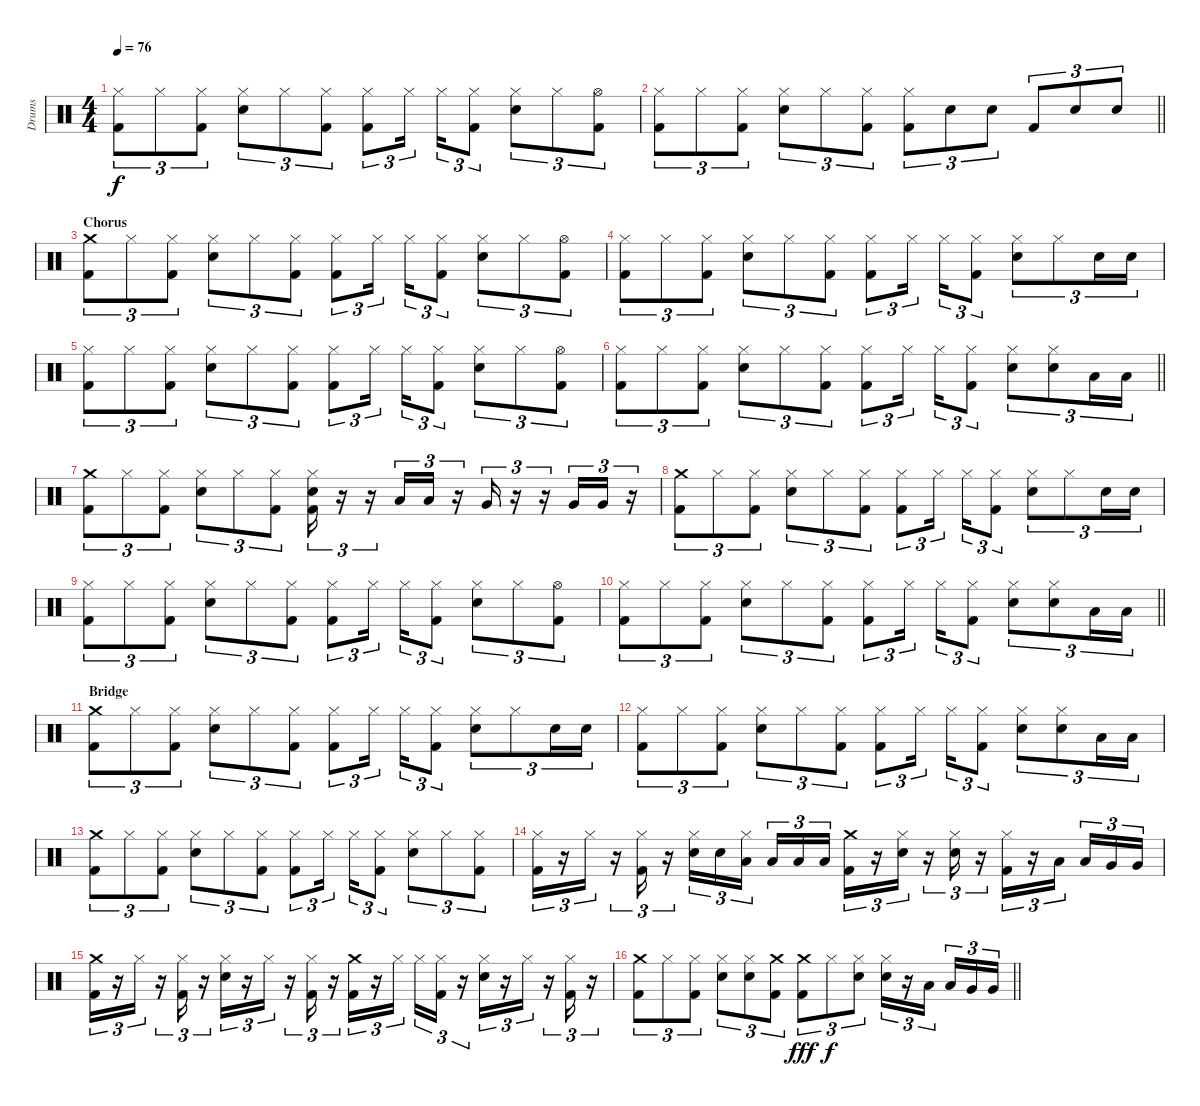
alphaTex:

\track ("Drums" "Drums") {instrument percussion}
\staff {score}
\articulation defaults
\ts (4 4)
\tempo 76
\clef neutral
\ks c
("Hi-Hat (closed)" "Kick (hit) 2").8{tu (3 2) dy f} "Hi-Hat (closed)".8{tu (3 2)} ("Hi-Hat (closed)" "Kick (hit) 2").8{tu (3 2)} ("Hi-Hat (closed)" "Snare (hit) 2").8{tu (3 2)} "Hi-Hat (closed)".8{tu (3 2)} ("Hi-Hat (closed)" "Kick (hit) 2").8{tu (3 2)} ("Hi-Hat (closed)" "Kick (hit) 2").8{tu (3 2)} "Hi-Hat (closed)".16{tu (3 2) beam splitsecondary} "Hi-Hat (closed)".16{tu (3 2)} ("Hi-Hat (closed)" "Kick (hit) 2").8{tu (3 2)} ("Hi-Hat (closed)" "Snare (hit) 2").8{tu (3 2)} "Hi-Hat (closed)".8{tu (3 2)} ("Hi-Hat (open)" "Kick (hit) 2").8{tu (3 2)} |
\barLineRight lightlight
("Hi-Hat (closed)" "Kick (hit) 2").8{tu (3 2)} "Hi-Hat (closed)".8{tu (3 2)} ("Hi-Hat (closed)" "Kick (hit) 2").8{tu (3 2)} ("Hi-Hat (closed)" "Snare (hit) 2").8{tu (3 2)} "Hi-Hat (closed)".8{tu (3 2)} ("Hi-Hat (closed)" "Kick (hit) 2").8{tu (3 2)} ("Hi-Hat (closed)" "Kick (hit) 2").8{tu (3 2)} "Snare (hit) 2".8{tu (3 2)} "Snare (hit) 2".8{tu (3 2)} "Kick (hit) 2".8{tu (3 2)} "Snare (hit) 2".8{tu (3 2)} "Snare (hit) 2".8{tu (3 2)} |
\section ("" "Chorus")
("Crash medium (hit)" "Kick (hit) 2").8{tu (3 2)} "Hi-Hat (closed)".8{tu (3 2)} ("Hi-Hat (closed)" "Kick (hit) 2").8{tu (3 2)} ("Hi-Hat (closed)" "Snare (hit) 2").8{tu (3 2)} "Hi-Hat (closed)".8{tu (3 2)} ("Hi-Hat (closed)" "Kick (hit) 2").8{tu (3 2)} ("Hi-Hat (closed)" "Kick (hit) 2").8{tu (3 2)} "Hi-Hat (closed)".16{tu (3 2) beam splitsecondary} "Hi-Hat (closed)".16{tu (3 2)} ("Hi-Hat (closed)" "Kick (hit) 2").8{tu (3 2)} ("Hi-Hat (closed)" "Snare (hit) 2").8{tu (3 2)} "Hi-Hat (closed)".8{tu (3 2)} ("Hi-Hat (open)" "Kick (hit) 2").8{tu (3 2)} |
("Hi-Hat (closed)" "Kick (hit) 2").8{tu (3 2)} "Hi-Hat (closed)".8{tu (3 2)} ("Hi-Hat (closed)" "Kick (hit) 2").8{tu (3 2)} ("Hi-Hat (closed)" "Snare (hit) 2").8{tu (3 2)} "Hi-Hat (closed)".8{tu (3 2)} ("Hi-Hat (closed)" "Kick (hit) 2").8{tu (3 2)} ("Hi-Hat (closed)" "Kick (hit) 2").8{tu (3 2)} "Hi-Hat (closed)".16{tu (3 2) beam splitsecondary} "Hi-Hat (closed)".16{tu (3 2)} ("Hi-Hat (closed)" "Kick (hit) 2").8{tu (3 2)} ("Hi-Hat (closed)" "Snare (hit) 2").8{tu (3 2)} "Hi-Hat (closed)".8{tu (3 2)} "Snare (hit) 2".16{tu (3 2)} "Snare (hit) 2".16{tu (3 2)} |
("Hi-Hat (closed)" "Kick (hit) 2").8{tu (3 2)} "Hi-Hat (closed)".8{tu (3 2)} ("Hi-Hat (closed)" "Kick (hit) 2").8{tu (3 2)} ("Hi-Hat (closed)" "Snare (hit) 2").8{tu (3 2)} "Hi-Hat (closed)".8{tu (3 2)} ("Hi-Hat (closed)" "Kick (hit) 2").8{tu (3 2)} ("Hi-Hat (closed)" "Kick (hit) 2").8{tu (3 2)} "Hi-Hat (closed)".16{tu (3 2) beam splitsecondary} "Hi-Hat (closed)".16{tu (3 2)} ("Hi-Hat (closed)" "Kick (hit) 2").8{tu (3 2)} ("Hi-Hat (closed)" "Snare (hit) 2").8{tu (3 2)} "Hi-Hat (closed)".8{tu (3 2)} ("Hi-Hat (open)" "Kick (hit) 2").8{tu (3 2)} |
\barLineRight lightlight
("Hi-Hat (closed)" "Kick (hit) 2").8{tu (3 2)} "Hi-Hat (closed)".8{tu (3 2)} ("Hi-Hat (closed)" "Kick (hit) 2").8{tu (3 2)} ("Hi-Hat (closed)" "Snare (hit) 2").8{tu (3 2)} "Hi-Hat (closed)".8{tu (3 2)} ("Hi-Hat (closed)" "Kick (hit) 2").8{tu (3 2)} ("Hi-Hat (closed)" "Kick (hit) 2").8{tu (3 2)} "Hi-Hat (closed)".16{tu (3 2) beam splitsecondary} "Hi-Hat (closed)".16{tu (3 2)} ("Hi-Hat (closed)" "Kick (hit) 2").8{tu (3 2)} ("Hi-Hat (closed)" "Snare (hit) 2").8{tu (3 2)} ("Hi-Hat (closed)" "Snare (hit) 2").8{tu (3 2)} "Low Tom (hit)".16{tu (3 2)} "Low Tom (hit)".16{tu (3 2)} |
("Crash medium (hit)" "Kick (hit) 2").8{tu (3 2)} "Hi-Hat (closed)".8{tu (3 2)} ("Hi-Hat (closed)" "Kick (hit) 2").8{tu (3 2)} ("Hi-Hat (closed)" "Snare (hit) 2").8{tu (3 2)} "Hi-Hat (closed)".8{tu (3 2)} ("Hi-Hat (closed)" "Kick (hit) 2").8{tu (3 2)} ("Hi-Hat (closed)" "Snare (hit) 2" "Kick (hit) 2").16{tu (3 2)} r.16{tu (3 2)} r.16{tu (3 2)} "Low Tom (hit)".16{tu (3 2)} "Low Tom (hit)".16{tu (3 2)} r.16{tu (3 2)} "Very Low Tom (hit)".16{tu (3 2)} r.16{tu (3 2)} r.16{tu (3 2)} "Very Low Tom (hit)".16{tu (3 2)} "Very Low Tom (hit)".16{tu (3 2)} r.16{tu (3 2)} |
("Crash medium (hit)" "Kick (hit) 2").8{tu (3 2)} "Hi-Hat (closed)".8{tu (3 2)} ("Hi-Hat (closed)" "Kick (hit) 2").8{tu (3 2)} ("Hi-Hat (closed)" "Snare (hit) 2").8{tu (3 2)} "Hi-Hat (closed)".8{tu (3 2)} ("Hi-Hat (closed)" "Kick (hit) 2").8{tu (3 2)} ("Hi-Hat (closed)" "Kick (hit) 2").8{tu (3 2)} "Hi-Hat (closed)".16{tu (3 2) beam splitsecondary} "Hi-Hat (closed)".16{tu (3 2)} ("Hi-Hat (closed)" "Kick (hit) 2").8{tu (3 2)} ("Hi-Hat (closed)" "Snare (hit) 2").8{tu (3 2)} "Hi-Hat (closed)".8{tu (3 2)} "Snare (hit) 2".16{tu (3 2)} "Snare (hit) 2".16{tu (3 2)} |
("Hi-Hat (closed)" "Kick (hit) 2").8{tu (3 2)} "Hi-Hat (closed)".8{tu (3 2)} ("Hi-Hat (closed)" "Kick (hit) 2").8{tu (3 2)} ("Hi-Hat (closed)" "Snare (hit) 2").8{tu (3 2)} "Hi-Hat (closed)".8{tu (3 2)} ("Hi-Hat (closed)" "Kick (hit) 2").8{tu (3 2)} ("Hi-Hat (closed)" "Kick (hit) 2").8{tu (3 2)} "Hi-Hat (closed)".16{tu (3 2) beam splitsecondary} "Hi-Hat (closed)".16{tu (3 2)} ("Hi-Hat (closed)" "Kick (hit) 2").8{tu (3 2)} ("Hi-Hat (closed)" "Snare (hit) 2").8{tu (3 2)} "Hi-Hat (closed)".8{tu (3 2)} ("Hi-Hat (open)" "Kick (hit) 2").8{tu (3 2)} |
\barLineRight lightlight
("Hi-Hat (closed)" "Kick (hit) 2").8{tu (3 2)} "Hi-Hat (closed)".8{tu (3 2)} ("Hi-Hat (closed)" "Kick (hit) 2").8{tu (3 2)} ("Hi-Hat (closed)" "Snare (hit) 2").8{tu (3 2)} "Hi-Hat (closed)".8{tu (3 2)} ("Hi-Hat (closed)" "Kick (hit) 2").8{tu (3 2)} ("Hi-Hat (closed)" "Kick (hit) 2").8{tu (3 2)} "Hi-Hat (closed)".16{tu (3 2) beam splitsecondary} "Hi-Hat (closed)".16{tu (3 2)} ("Hi-Hat (closed)" "Kick (hit) 2").8{tu (3 2)} ("Hi-Hat (closed)" "Snare (hit) 2").8{tu (3 2)} ("Hi-Hat (closed)" "Snare (hit) 2").8{tu (3 2)} "Low Tom (hit)".16{tu (3 2)} "Low Tom (hit)".16{tu (3 2)} |
\section ("" "Bridge")
("Crash medium (hit)" "Kick (hit) 2").8{tu (3 2)} "Hi-Hat (closed)".8{tu (3 2)} ("Hi-Hat (closed)" "Kick (hit) 2").8{tu (3 2)} ("Hi-Hat (closed)" "Snare (hit) 2").8{tu (3 2)} "Hi-Hat (closed)".8{tu (3 2)} ("Hi-Hat (closed)" "Kick (hit) 2").8{tu (3 2)} ("Hi-Hat (closed)" "Kick (hit) 2").8{tu (3 2)} "Hi-Hat (closed)".16{tu (3 2) beam splitsecondary} "Hi-Hat (closed)".16{tu (3 2)} ("Hi-Hat (closed)" "Kick (hit) 2").8{tu (3 2)} ("Hi-Hat (closed)" "Snare (hit) 2").8{tu (3 2)} "Hi-Hat (closed)".8{tu (3 2)} "Snare (hit) 2".16{tu (3 2)} "Snare (hit) 2".16{tu (3 2)} |
("Hi-Hat (closed)" "Kick (hit) 2").8{tu (3 2)} "Hi-Hat (closed)".8{tu (3 2)} ("Hi-Hat (closed)" "Kick (hit) 2").8{tu (3 2)} ("Hi-Hat (closed)" "Snare (hit) 2").8{tu (3 2)} "Hi-Hat (closed)".8{tu (3 2)} ("Hi-Hat (closed)" "Kick (hit) 2").8{tu (3 2)} ("Hi-Hat (closed)" "Kick (hit) 2").8{tu (3 2)} "Hi-Hat (closed)".16{tu (3 2) beam splitsecondary} "Hi-Hat (closed)".16{tu (3 2)} ("Hi-Hat (closed)" "Kick (hit) 2").8{tu (3 2)} ("Hi-Hat (closed)" "Snare (hit) 2").8{tu (3 2)} ("Hi-Hat (closed)" "Snare (hit) 2").8{tu (3 2)} "Low Tom (hit)".16{tu (3 2)} "Low Tom (hit)".16{tu (3 2)} |
("Crash medium (hit)" "Kick (hit) 2").8{tu (3 2)} "Hi-Hat (closed)".8{tu (3 2)} ("Hi-Hat (closed)" "Kick (hit) 2").8{tu (3 2)} ("Hi-Hat (closed)" "Snare (hit) 2").8{tu (3 2)} "Hi-Hat (closed)".8{tu (3 2)} ("Hi-Hat (closed)" "Kick (hit) 2").8{tu (3 2)} ("Hi-Hat (closed)" "Kick (hit) 2").8{tu (3 2)} "Hi-Hat (closed)".16{tu (3 2) beam splitsecondary} "Hi-Hat (closed)".16{tu (3 2)} ("Hi-Hat (closed)" "Kick (hit) 2").8{tu (3 2)} ("Hi-Hat (closed)" "Snare (hit) 2").8{tu (3 2)} "Hi-Hat (closed)".8{tu (3 2)} ("Hi-Hat (closed)" "Kick (hit) 2").8{tu (3 2)} |
("Hi-Hat (closed)" "Kick (hit) 2").16{tu (3 2)} r.16{tu (3 2)} "Hi-Hat (closed)".16{tu (3 2)} r.16{tu (3 2)} ("Hi-Hat (closed)" "Kick (hit) 2").16{tu (3 2)} r.16{tu (3 2)} ("Hi-Hat (closed)" "Snare (hit) 2").16{tu (3 2)} "Snare (hit) 2".16{tu (3 2)} ("Hi-Hat (closed)" "Low Tom (hit)").16{tu (3 2) beam splitsecondary} "Low Tom (hit)".16{tu (3 2)} "Low Floor Tom (hit)".16{tu (3 2)} "Low Floor Tom (hit)".16{tu (3 2)} ("Crash medium (hit)" "Kick (hit) 2").16{tu (3 2)} r.16{tu (3 2)} ("Hi-Hat (closed)" "Snare (hit) 2").16{tu (3 2)} r.16{tu (3 2)} ("Hi-Hat (closed)" "Snare (hit) 2").16{tu (3 2)} r.16{tu (3 2)} ("Hi-Hat (closed)" "Kick (hit) 2").16{tu (3 2)} r.16{tu (3 2)} "Low Tom (hit)".16{tu (3 2) beam splitsecondary} "Low Tom (hit)".16{tu (3 2)} "Very Low Tom (hit)".16{tu (3 2)} "Very Low Tom (hit)".16{tu (3 2)} |
("Crash medium (hit)" "Kick (hit) 2").16{tu (3 2)} r.16{tu (3 2)} "Hi-Hat (closed)".16{tu (3 2)} r.16{tu (3 2)} ("Hi-Hat (closed)" "Kick (hit) 2").16{tu (3 2)} r.16{tu (3 2)} ("Hi-Hat (closed)" "Snare (hit) 2").16{tu (3 2)} r.16{tu (3 2)} "Hi-Hat (closed)".16{tu (3 2)} r.16{tu (3 2)} ("Hi-Hat (closed)" "Kick (hit) 2").16{tu (3 2)} r.16{tu (3 2)} ("Crash medium (hit)" "Kick (hit) 2").16{tu (3 2)} r.16{tu (3 2)} "Hi-Hat (closed)".16{tu (3 2) beam splitsecondary} "Hi-Hat (closed)".16{tu (3 2)} ("Hi-Hat (closed)" "Kick (hit) 2").16{tu (3 2)} r.16{tu (3 2)} ("Hi-Hat (closed)" "Snare (hit) 2").16{tu (3 2)} r.16{tu (3 2)} "Hi-Hat (closed)".16{tu (3 2)} r.16{tu (3 2)} ("Hi-Hat (closed)" "Kick (hit) 2").16{tu (3 2)} r.16{tu (3 2)} |
\barLineRight lightlight
("Crash medium (hit)" "Kick (hit) 2").8{tu (3 2)} "Hi-Hat (closed)".8{tu (3 2)} ("Hi-Hat (closed)" "Kick (hit) 2").8{tu (3 2)} ("Hi-Hat (closed)" "Snare (hit) 2").8{tu (3 2)} ("Hi-Hat (closed)" "Snare (hit) 2").8{tu (3 2)} ("Crash medium (hit)" "Kick (hit) 2").8{tu (3 2)} ("Crash medium (hit)" "Kick (hit) 2").8{tu (3 2) dy fff} "Hi-Hat (closed)".8{tu (3 2) dy f} ("Hi-Hat (closed)" "Snare (hit) 2").8{tu (3 2)} ("Hi-Hat (closed)" "Snare (hit) 2").16{tu (3 2)} r.16{tu (3 2)} "Low Tom (hit)".16{tu (3 2) beam splitsecondary} "Low Tom (hit)".16{tu (3 2)} "Very Low Tom (hit)".16{tu (3 2)} "Very Low Tom (hit)".16{tu (3 2)}
